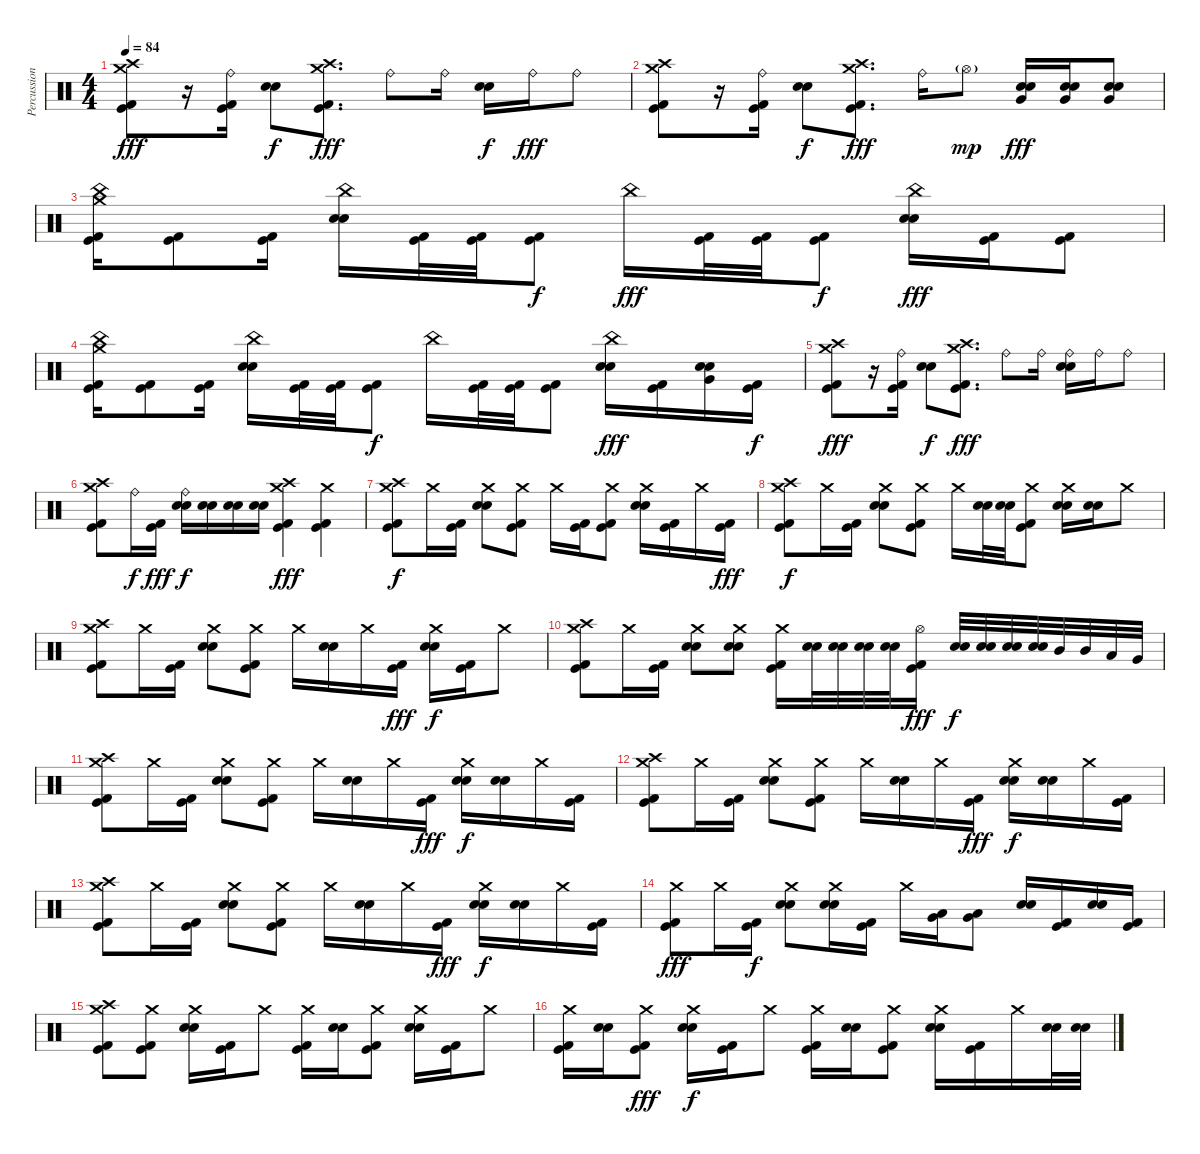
\track ("Percussion" "Percussion") {instrument percussion}
\staff {score}
\articulation defaults
\ts (4 4)
\tempo 84
\clef neutral
\ks c
("Crash high (hit)" "Crash medium (hit)" "Kick (hit)" "Kick (hit) 2").8{dy fff} r.16 ("Ride (bell)" "Kick (hit)" "Kick (hit) 2").16 ("Electric Snare (hit)" "Snare (hit) 2").8{dy f} ("Crash medium (hit)" "Crash high (hit)" "Kick (hit)" "Kick (hit) 2").8{d dy fff} "Ride (bell)".8 "Ride (bell)".16 ("Electric Snare (hit)" "Snare (hit) 2").16{dy f} "Ride (bell)".16{dy fff} "Ride (bell)".8 |
("Crash high (hit)" "Crash medium (hit)" "Kick (hit)" "Kick (hit) 2").8 r.16 ("Ride (bell)" "Kick (hit)" "Kick (hit) 2").16 ("Electric Snare (hit)" "Snare (hit) 2").8{dy f} ("Crash medium (hit)" "Crash high (hit)" "Kick (hit)" "Kick (hit) 2").8{d dy fff} "Ride (bell)".16 "Hi-Hat (open)"{g}.8{dy mp} ("Electric Snare (hit)" "Snare (hit) 2" "Very Low Tom (hit)").16{dy fff} ("Electric Snare (hit)" "Snare (hit) 2" "Very Low Tom (hit)").16 ("Electric Snare (hit)" "Snare (hit) 2" "Very Low Tom (hit)").8 |
("Crash medium (hit)" "China (hit)" "Kick (hit)" "Kick (hit) 2").16 ("Kick (hit)" "Kick (hit) 2").8 ("Kick (hit)" "Kick (hit) 2").16 ("China (hit)" "Electric Snare (hit)" "Snare (hit) 2").16 ("Kick (hit)" "Kick (hit) 2").32 ("Kick (hit)" "Kick (hit) 2").32 ("Kick (hit)" "Kick (hit) 2").8{dy f} "China (hit)".16{dy fff} ("Kick (hit)" "Kick (hit) 2").32 ("Kick (hit)" "Kick (hit) 2").32 ("Kick (hit)" "Kick (hit) 2").8{dy f} ("China (hit)" "Electric Snare (hit)" "Snare (hit) 2").16{dy fff} ("Kick (hit)" "Kick (hit) 2").16 ("Kick (hit)" "Kick (hit) 2").8 |
("Crash medium (hit)" "China (hit)" "Kick (hit)" "Kick (hit) 2").16 ("Kick (hit)" "Kick (hit) 2").8 ("Kick (hit)" "Kick (hit) 2").16 ("China (hit)" "Electric Snare (hit)" "Snare (hit) 2").16 ("Kick (hit)" "Kick (hit) 2").32 ("Kick (hit)" "Kick (hit) 2").32 ("Kick (hit)" "Kick (hit) 2").8{dy f} "China (hit)".16 ("Kick (hit)" "Kick (hit) 2").32 ("Kick (hit)" "Kick (hit) 2").32 ("Kick (hit)" "Kick (hit) 2").8 ("China (hit)" "Electric Snare (hit)" "Snare (hit) 2").16{dy fff} ("Kick (hit)" "Kick (hit) 2").16 ("Very Low Tom (hit)" "Electric Snare (hit)" "Snare (hit) 2").16 ("Kick (hit)" "Kick (hit) 2").16{dy f} |
("Crash high (hit)" "Crash medium (hit)" "Kick (hit)" "Kick (hit) 2").8{dy fff} r.16 ("Ride (bell)" "Kick (hit)" "Kick (hit) 2").16 ("Electric Snare (hit)" "Snare (hit) 2").8{dy f} ("Crash medium (hit)" "Crash high (hit)" "Kick (hit)" "Kick (hit) 2").8{d dy fff} "Ride (bell)".8 "Ride (bell)".16 ("Ride (bell)" "Electric Snare (hit)" "Snare (hit) 2").16 "Ride (bell)".16 "Ride (bell)".8 |
("Crash high (hit)" "Crash medium (hit)" "Kick (hit)" "Kick (hit) 2").8 "Ride (bell)".16{dy f} ("Kick (hit)" "Kick (hit) 2").16{dy fff} ("Ride (bell)" "Electric Snare (hit)" "Snare (hit) 2").16{dy f} ("Electric Snare (hit)" "Snare (hit) 2").16 ("Electric Snare (hit)" "Snare (hit) 2").16 ("Electric Snare (hit)" "Snare (hit) 2").16 ("Crash medium (hit)" "Crash high (hit)" "Kick (hit)" "Kick (hit) 2").4{dy fff} ("Crash medium (hit)" "Kick (hit)" "Kick (hit) 2").4 |
("Crash high (hit)" "Crash medium (hit)" "Kick (hit)" "Kick (hit) 2").8{dy f} "Crash medium (hit)".16 ("Kick (hit)" "Kick (hit) 2").16 ("Crash medium (hit)" "Electric Snare (hit)" "Snare (hit) 2").8 ("Crash medium (hit)" "Kick (hit)" "Kick (hit) 2").8 "Crash medium (hit)".16 ("Kick (hit)" "Kick (hit) 2").16 ("Crash medium (hit)" "Kick (hit)" "Kick (hit) 2").8 ("Crash medium (hit)" "Electric Snare (hit)" "Snare (hit) 2").16 ("Kick (hit)" "Kick (hit) 2").16 "Crash medium (hit)".16 ("Kick (hit)" "Kick (hit) 2").16{dy fff} |
("Crash high (hit)" "Crash medium (hit)" "Kick (hit)" "Kick (hit) 2").8{dy f} "Crash medium (hit)".16 ("Kick (hit)" "Kick (hit) 2").16 ("Crash medium (hit)" "Electric Snare (hit)" "Snare (hit) 2").8 ("Crash medium (hit)" "Kick (hit)" "Kick (hit) 2").8 "Crash medium (hit)".16 ("Electric Snare (hit)" "Snare (hit) 2").32 ("Electric Snare (hit)" "Snare (hit) 2").32 ("Crash medium (hit)" "Kick (hit)" "Kick (hit) 2").8 ("Crash medium (hit)" "Electric Snare (hit)" "Snare (hit) 2").16 ("Electric Snare (hit)" "Snare (hit) 2").16 "Crash medium (hit)".8 |
("Crash high (hit)" "Crash medium (hit)" "Kick (hit)" "Kick (hit) 2").8 "Crash medium (hit)".16 ("Kick (hit)" "Kick (hit) 2").16 ("Crash medium (hit)" "Electric Snare (hit)" "Snare (hit) 2").8 ("Crash medium (hit)" "Kick (hit)" "Kick (hit) 2").8 "Crash medium (hit)".16 ("Electric Snare (hit)" "Snare (hit) 2").16 "Crash medium (hit)".16 ("Kick (hit)" "Kick (hit) 2").16{dy fff} ("Crash medium (hit)" "Electric Snare (hit)" "Snare (hit) 2").16{dy f} ("Kick (hit)" "Kick (hit) 2").16 "Crash medium (hit)".8 |
("Crash high (hit)" "Crash medium (hit)" "Kick (hit)" "Kick (hit) 2").8 "Crash medium (hit)".16 ("Kick (hit)" "Kick (hit) 2").16 ("Crash medium (hit)" "Electric Snare (hit)" "Snare (hit) 2").8 ("Crash medium (hit)" "Electric Snare (hit)" "Snare (hit) 2").8 ("Crash medium (hit)" "Kick (hit)" "Kick (hit) 2").16 ("Electric Snare (hit)" "Snare (hit) 2").32 ("Electric Snare (hit)" "Snare (hit) 2").32 ("Electric Snare (hit)" "Snare (hit) 2").32 ("Electric Snare (hit)" "Snare (hit) 2").32 ("Hi-Hat (open)" "Kick (hit)" "Kick (hit) 2").16{dy fff} ("Electric Snare (hit)" "Snare (hit) 2").32{dy f} ("Electric Snare (hit)" "Snare (hit) 2").32 ("Electric Snare (hit)" "Snare (hit) 2").32 ("Electric Snare (hit)" "Snare (hit) 2").32 "Mid Tom (hit)".32 "Mid Tom (hit)".32 "Low Tom (hit)".32 "Very Low Tom (hit)".32 |
("Crash high (hit)" "Crash medium (hit)" "Kick (hit)" "Kick (hit) 2").8 "Crash medium (hit)".16 ("Kick (hit)" "Kick (hit) 2").16 ("Crash medium (hit)" "Electric Snare (hit)" "Snare (hit) 2").8 ("Crash medium (hit)" "Kick (hit)" "Kick (hit) 2").8 "Crash medium (hit)".16 ("Electric Snare (hit)" "Snare (hit) 2").16 "Crash medium (hit)".16 ("Kick (hit)" "Kick (hit) 2").16{dy fff} ("Crash medium (hit)" "Electric Snare (hit)" "Snare (hit) 2").16{dy f} ("Electric Snare (hit)" "Snare (hit) 2").16 "Crash medium (hit)".16 ("Kick (hit)" "Kick (hit) 2").16 |
("Crash high (hit)" "Crash medium (hit)" "Kick (hit)" "Kick (hit) 2").8 "Crash medium (hit)".16 ("Kick (hit)" "Kick (hit) 2").16 ("Crash medium (hit)" "Electric Snare (hit)" "Snare (hit) 2").8 ("Crash medium (hit)" "Kick (hit)" "Kick (hit) 2").8 "Crash medium (hit)".16 ("Electric Snare (hit)" "Snare (hit) 2").16 "Crash medium (hit)".16 ("Kick (hit)" "Kick (hit) 2").16{dy fff} ("Crash medium (hit)" "Electric Snare (hit)" "Snare (hit) 2").16{dy f} ("Electric Snare (hit)" "Snare (hit) 2").16 "Crash medium (hit)".16 ("Kick (hit)" "Kick (hit) 2").16 |
("Crash high (hit)" "Crash medium (hit)" "Kick (hit)" "Kick (hit) 2").8 "Crash medium (hit)".16 ("Kick (hit)" "Kick (hit) 2").16 ("Crash medium (hit)" "Electric Snare (hit)" "Snare (hit) 2").8 ("Crash medium (hit)" "Kick (hit)" "Kick (hit) 2").8 "Crash medium (hit)".16 ("Electric Snare (hit)" "Snare (hit) 2").16 "Crash medium (hit)".16 ("Kick (hit)" "Kick (hit) 2").16{dy fff} ("Crash medium (hit)" "Electric Snare (hit)" "Snare (hit) 2").16{dy f} ("Electric Snare (hit)" "Snare (hit) 2").16 "Crash medium (hit)".16 ("Kick (hit)" "Kick (hit) 2").16 |
("Crash medium (hit)" "Kick (hit)" "Kick (hit) 2").8{dy fff} "Crash medium (hit)".16 ("Kick (hit)" "Kick (hit) 2").16{dy f} ("Crash medium (hit)" "Electric Snare (hit)" "Snare (hit) 2").8 ("Crash medium (hit)" "Electric Snare (hit)" "Snare (hit) 2").16 ("Kick (hit)" "Kick (hit) 2").16 "Crash medium (hit)".16 ("Low Tom (hit)" "Very Low Tom (hit)").16 ("Very Low Tom (hit)" "Low Floor Tom (hit)").8 ("Electric Snare (hit)" "Snare (hit) 2").16 ("Kick (hit)" "Kick (hit) 2").16 ("Electric Snare (hit)" "Snare (hit) 2").16 ("Kick (hit)" "Kick (hit) 2").16 |
("Crash medium (hit)" "Crash high (hit)" "Kick (hit)" "Kick (hit) 2").8 ("Crash medium (hit)" "Kick (hit)" "Kick (hit) 2").8 ("Crash medium (hit)" "Electric Snare (hit)" "Snare (hit) 2").16 ("Kick (hit)" "Kick (hit) 2").16 "Crash medium (hit)".8 ("Crash medium (hit)" "Kick (hit)" "Kick (hit) 2").16 ("Electric Snare (hit)" "Snare (hit) 2").16 ("Crash medium (hit)" "Kick (hit)" "Kick (hit) 2").8 ("Crash medium (hit)" "Electric Snare (hit)" "Snare (hit) 2").16 ("Kick (hit)" "Kick (hit) 2").16 "Crash medium (hit)".8 |
("Crash medium (hit)" "Kick (hit)" "Kick (hit) 2").16 ("Electric Snare (hit)" "Snare (hit) 2").16 ("Crash medium (hit)" "Kick (hit)" "Kick (hit) 2").8{dy fff} ("Crash medium (hit)" "Electric Snare (hit)" "Snare (hit) 2").16{dy f} ("Kick (hit)" "Kick (hit) 2").16 "Crash medium (hit)".8 ("Crash medium (hit)" "Kick (hit)" "Kick (hit) 2").16 ("Electric Snare (hit)" "Snare (hit) 2").16 ("Crash medium (hit)" "Kick (hit)" "Kick (hit) 2").8 ("Crash medium (hit)" "Electric Snare (hit)" "Snare (hit) 2").16 ("Kick (hit)" "Kick (hit) 2").16 "Crash medium (hit)".16 ("Electric Snare (hit)" "Snare (hit) 2").32 ("Electric Snare (hit)" "Snare (hit) 2").32
